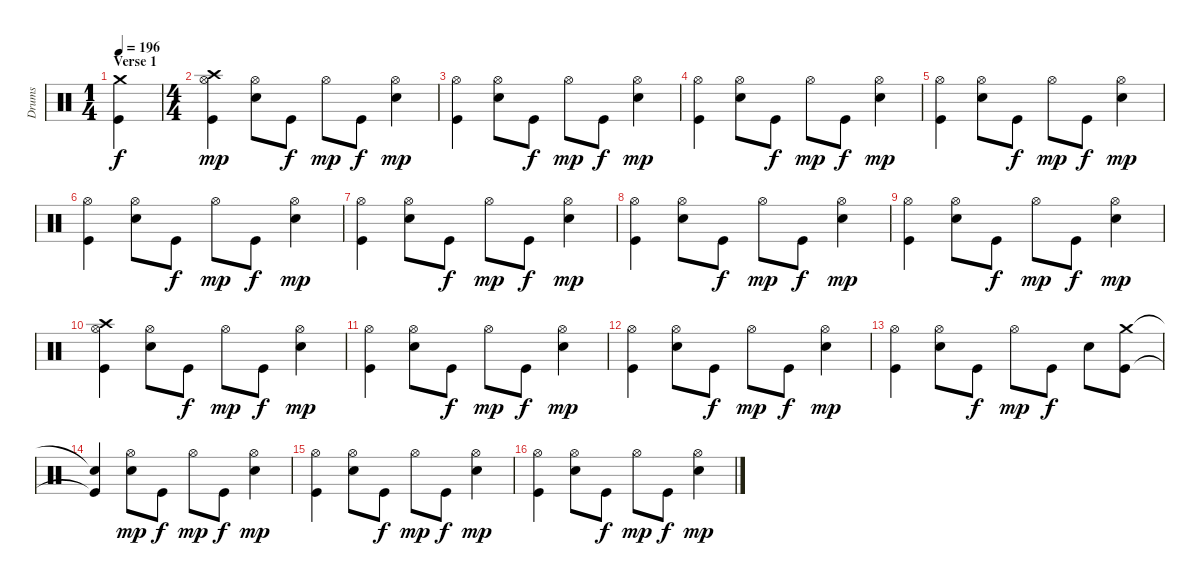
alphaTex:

\track ("Drums" "Drums") {instrument percussion}
\staff {score}
\articulation defaults
\ts (1 4)
\section ("" "Verse 1")
\tempo 196
\clef neutral
\ks c
("Crash medium (hit)" "Kick (hit)").4{dy f} |
\ts (4 4)
("Crash high (hit)" "Hi-Hat (open)" "Kick (hit)").4{dy mp} ("Hi-Hat (open)" "Electric Snare (hit)").8 "Kick (hit)".8{dy f} "Hi-Hat (open)".8{dy mp} "Kick (hit)".8{dy f} ("Hi-Hat (open)" "Electric Snare (hit)").4{dy mp} |
("Hi-Hat (open)" "Kick (hit)").4 ("Hi-Hat (open)" "Electric Snare (hit)").8 "Kick (hit)".8{dy f} "Hi-Hat (open)".8{dy mp} "Kick (hit)".8{dy f} ("Hi-Hat (open)" "Electric Snare (hit)").4{dy mp} |
("Hi-Hat (open)" "Kick (hit)").4 ("Hi-Hat (open)" "Electric Snare (hit)").8 "Kick (hit)".8{dy f} "Hi-Hat (open)".8{dy mp} "Kick (hit)".8{dy f} ("Hi-Hat (open)" "Electric Snare (hit)").4{dy mp} |
("Hi-Hat (open)" "Kick (hit)").4 ("Hi-Hat (open)" "Electric Snare (hit)").8 "Kick (hit)".8{dy f} "Hi-Hat (open)".8{dy mp} "Kick (hit)".8{dy f} ("Hi-Hat (open)" "Electric Snare (hit)").4{dy mp} |
("Hi-Hat (open)" "Kick (hit)").4 ("Hi-Hat (open)" "Electric Snare (hit)").8 "Kick (hit)".8{dy f} "Hi-Hat (open)".8{dy mp} "Kick (hit)".8{dy f} ("Hi-Hat (open)" "Electric Snare (hit)").4{dy mp} |
("Hi-Hat (open)" "Kick (hit)").4 ("Hi-Hat (open)" "Electric Snare (hit)").8 "Kick (hit)".8{dy f} "Hi-Hat (open)".8{dy mp} "Kick (hit)".8{dy f} ("Hi-Hat (open)" "Electric Snare (hit)").4{dy mp} |
("Hi-Hat (open)" "Kick (hit)").4 ("Hi-Hat (open)" "Electric Snare (hit)").8 "Kick (hit)".8{dy f} "Hi-Hat (open)".8{dy mp} "Kick (hit)".8{dy f} ("Hi-Hat (open)" "Electric Snare (hit)").4{dy mp} |
("Hi-Hat (open)" "Kick (hit)").4 ("Hi-Hat (open)" "Electric Snare (hit)").8 "Kick (hit)".8{dy f} "Hi-Hat (open)".8{dy mp} "Kick (hit)".8{dy f} ("Hi-Hat (open)" "Electric Snare (hit)").4{dy mp} |
("Crash high (hit)" "Hi-Hat (open)" "Kick (hit)").4 ("Hi-Hat (open)" "Electric Snare (hit)").8 "Kick (hit)".8{dy f} "Hi-Hat (open)".8{dy mp} "Kick (hit)".8{dy f} ("Hi-Hat (open)" "Electric Snare (hit)").4{dy mp} |
("Hi-Hat (open)" "Kick (hit)").4 ("Hi-Hat (open)" "Electric Snare (hit)").8 "Kick (hit)".8{dy f} "Hi-Hat (open)".8{dy mp} "Kick (hit)".8{dy f} ("Hi-Hat (open)" "Electric Snare (hit)").4{dy mp} |
("Hi-Hat (open)" "Kick (hit)").4 ("Hi-Hat (open)" "Electric Snare (hit)").8 "Kick (hit)".8{dy f} "Hi-Hat (open)".8{dy mp} "Kick (hit)".8{dy f} ("Hi-Hat (open)" "Electric Snare (hit)").4{dy mp} |
("Hi-Hat (open)" "Kick (hit)").4 ("Hi-Hat (open)" "Electric Snare (hit)").8 "Kick (hit)".8{dy f} "Hi-Hat (open)".8{dy mp} "Kick (hit)".8{dy f} "Electric Snare (hit)".8 ("Crash medium (hit)" "Kick (hit)").8 |
("Snare (hit)"{t} "Kick (hit)"{t}).4 ("Hi-Hat (open)" "Electric Snare (hit)").8{dy mp} "Kick (hit)".8{dy f} "Hi-Hat (open)".8{dy mp} "Kick (hit)".8{dy f} ("Hi-Hat (open)" "Electric Snare (hit)").4{dy mp} |
("Hi-Hat (open)" "Kick (hit)").4 ("Hi-Hat (open)" "Electric Snare (hit)").8 "Kick (hit)".8{dy f} "Hi-Hat (open)".8{dy mp} "Kick (hit)".8{dy f} ("Hi-Hat (open)" "Electric Snare (hit)").4{dy mp} |
("Hi-Hat (open)" "Kick (hit)").4 ("Hi-Hat (open)" "Electric Snare (hit)").8 "Kick (hit)".8{dy f} "Hi-Hat (open)".8{dy mp} "Kick (hit)".8{dy f} ("Hi-Hat (open)" "Electric Snare (hit)").4{dy mp}
